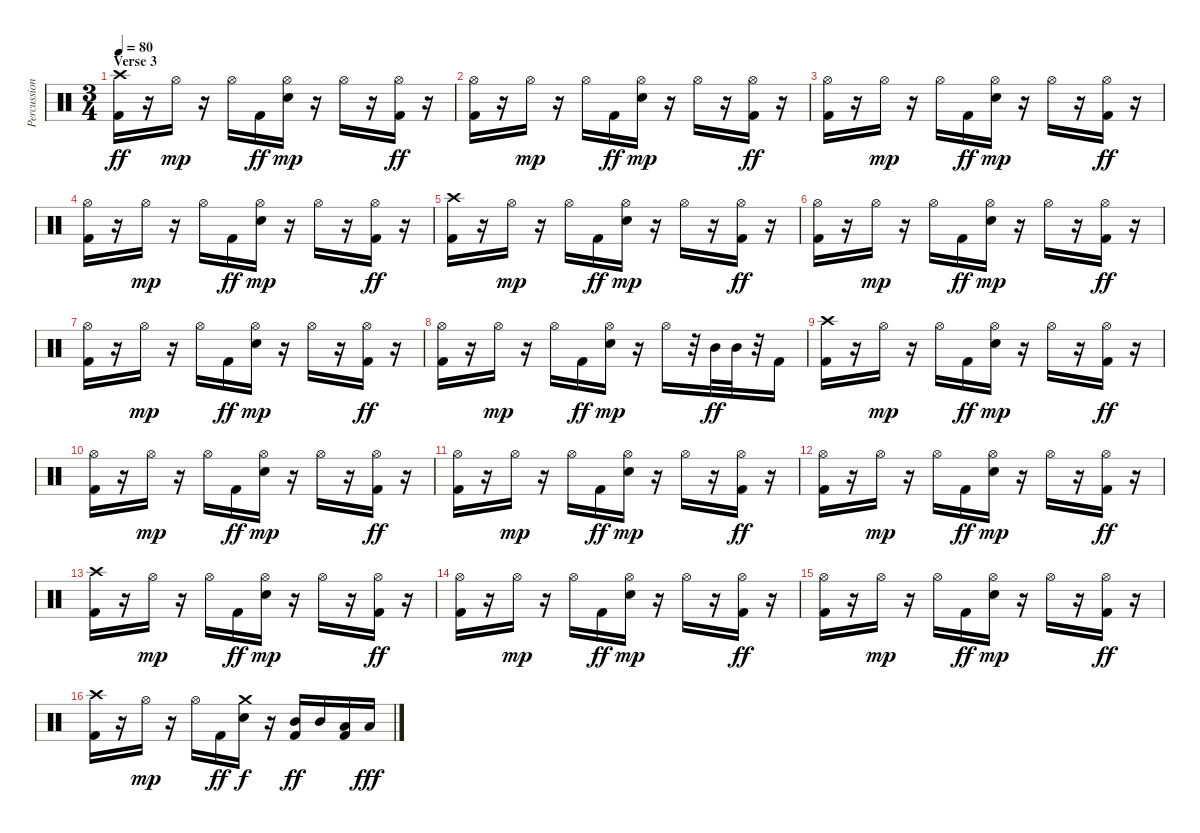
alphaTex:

\track ("Percussion" "Percussion") {instrument percussion}
\staff {score}
\articulation defaults
\ts (3 4)
\section ("" "Verse 3")
\tempo 80
\clef neutral
\ks c
("Crash high (hit)" "Kick (hit) 2").16{dy ff} r.16 "Hi-Hat (open)".16{dy mp} r.16 "Hi-Hat (open)".16 "Kick (hit) 2".16{dy ff} ("Hi-Hat (open)" "Electric Snare (hit)").16{dy mp} r.16 "Hi-Hat (open)".16 r.16 ("Hi-Hat (open)" "Kick (hit) 2").16{dy ff} r.16 |
("Hi-Hat (open)" "Kick (hit) 2").16 r.16 "Hi-Hat (open)".16{dy mp} r.16 "Hi-Hat (open)".16 "Kick (hit) 2".16{dy ff} ("Hi-Hat (open)" "Electric Snare (hit)").16{dy mp} r.16 "Hi-Hat (open)".16 r.16 ("Hi-Hat (open)" "Kick (hit) 2").16{dy ff} r.16 |
("Hi-Hat (open)" "Kick (hit) 2").16 r.16 "Hi-Hat (open)".16{dy mp} r.16 "Hi-Hat (open)".16 "Kick (hit) 2".16{dy ff} ("Hi-Hat (open)" "Electric Snare (hit)").16{dy mp} r.16 "Hi-Hat (open)".16 r.16 ("Hi-Hat (open)" "Kick (hit) 2").16{dy ff} r.16 |
("Hi-Hat (open)" "Kick (hit) 2").16 r.16 "Hi-Hat (open)".16{dy mp} r.16 "Hi-Hat (open)".16 "Kick (hit) 2".16{dy ff} ("Hi-Hat (open)" "Electric Snare (hit)").16{dy mp} r.16 "Hi-Hat (open)".16 r.16 ("Hi-Hat (open)" "Kick (hit) 2").16{dy ff} r.16 |
("Crash high (hit)" "Kick (hit) 2").16 r.16 "Hi-Hat (open)".16{dy mp} r.16 "Hi-Hat (open)".16 "Kick (hit) 2".16{dy ff} ("Hi-Hat (open)" "Electric Snare (hit)").16{dy mp} r.16 "Hi-Hat (open)".16 r.16 ("Hi-Hat (open)" "Kick (hit) 2").16{dy ff} r.16 |
("Hi-Hat (open)" "Kick (hit) 2").16 r.16 "Hi-Hat (open)".16{dy mp} r.16 "Hi-Hat (open)".16 "Kick (hit) 2".16{dy ff} ("Hi-Hat (open)" "Electric Snare (hit)").16{dy mp} r.16 "Hi-Hat (open)".16 r.16 ("Hi-Hat (open)" "Kick (hit) 2").16{dy ff} r.16 |
("Hi-Hat (open)" "Kick (hit) 2").16 r.16 "Hi-Hat (open)".16{dy mp} r.16 "Hi-Hat (open)".16 "Kick (hit) 2".16{dy ff} ("Hi-Hat (open)" "Electric Snare (hit)").16{dy mp} r.16 "Hi-Hat (open)".16 r.16 ("Hi-Hat (open)" "Kick (hit) 2").16{dy ff} r.16 |
("Hi-Hat (open)" "Kick (hit) 2").16 r.16 "Hi-Hat (open)".16{dy mp} r.16 "Hi-Hat (open)".16 "Kick (hit) 2".16{dy ff} ("Hi-Hat (open)" "Electric Snare (hit)").16{dy mp} r.16 "Hi-Hat (open)".16 r.32 "Mid Tom (hit)".32{dy ff} "Mid Tom (hit)".32 r.32 "Kick (hit) 2".16 |
("Crash high (hit)" "Kick (hit) 2").16 r.16 "Hi-Hat (open)".16{dy mp} r.16 "Hi-Hat (open)".16 "Kick (hit) 2".16{dy ff} ("Hi-Hat (open)" "Electric Snare (hit)").16{dy mp} r.16 "Hi-Hat (open)".16 r.16 ("Hi-Hat (open)" "Kick (hit) 2").16{dy ff} r.16 |
("Hi-Hat (open)" "Kick (hit) 2").16 r.16 "Hi-Hat (open)".16{dy mp} r.16 "Hi-Hat (open)".16 "Kick (hit) 2".16{dy ff} ("Hi-Hat (open)" "Electric Snare (hit)").16{dy mp} r.16 "Hi-Hat (open)".16 r.16 ("Hi-Hat (open)" "Kick (hit) 2").16{dy ff} r.16 |
("Hi-Hat (open)" "Kick (hit) 2").16 r.16 "Hi-Hat (open)".16{dy mp} r.16 "Hi-Hat (open)".16 "Kick (hit) 2".16{dy ff} ("Hi-Hat (open)" "Electric Snare (hit)").16{dy mp} r.16 "Hi-Hat (open)".16 r.16 ("Hi-Hat (open)" "Kick (hit) 2").16{dy ff} r.16 |
("Hi-Hat (open)" "Kick (hit) 2").16 r.16 "Hi-Hat (open)".16{dy mp} r.16 "Hi-Hat (open)".16 "Kick (hit) 2".16{dy ff} ("Hi-Hat (open)" "Electric Snare (hit)").16{dy mp} r.16 "Hi-Hat (open)".16 r.16 ("Hi-Hat (open)" "Kick (hit) 2").16{dy ff} r.16 |
("Crash high (hit)" "Kick (hit) 2").16 r.16 "Hi-Hat (open)".16{dy mp} r.16 "Hi-Hat (open)".16 "Kick (hit) 2".16{dy ff} ("Hi-Hat (open)" "Electric Snare (hit)").16{dy mp} r.16 "Hi-Hat (open)".16 r.16 ("Hi-Hat (open)" "Kick (hit) 2").16{dy ff} r.16 |
("Hi-Hat (open)" "Kick (hit) 2").16 r.16 "Hi-Hat (open)".16{dy mp} r.16 "Hi-Hat (open)".16 "Kick (hit) 2".16{dy ff} ("Hi-Hat (open)" "Electric Snare (hit)").16{dy mp} r.16 "Hi-Hat (open)".16 r.16 ("Hi-Hat (open)" "Kick (hit) 2").16{dy ff} r.16 |
("Hi-Hat (open)" "Kick (hit) 2").16 r.16 "Hi-Hat (open)".16{dy mp} r.16 "Hi-Hat (open)".16 "Kick (hit) 2".16{dy ff} ("Hi-Hat (open)" "Electric Snare (hit)").16{dy mp} r.16 "Hi-Hat (open)".16 r.16 ("Hi-Hat (open)" "Kick (hit) 2").16{dy ff} r.16 |
("Crash high (hit)" "Kick (hit) 2").16 r.16 "Hi-Hat (open)".16{dy mp} r.16 "Hi-Hat (open)".16 "Kick (hit) 2".16{dy ff} ("Crash medium (hit)" "Electric Snare (hit)").16{dy f} r.16 ("Mid Tom (hit)" "Kick (hit) 2").16{dy ff} "Mid Tom (hit)".16 ("Low Tom (hit)" "Kick (hit) 2").16 "Low Tom (hit)".16{dy fff}
